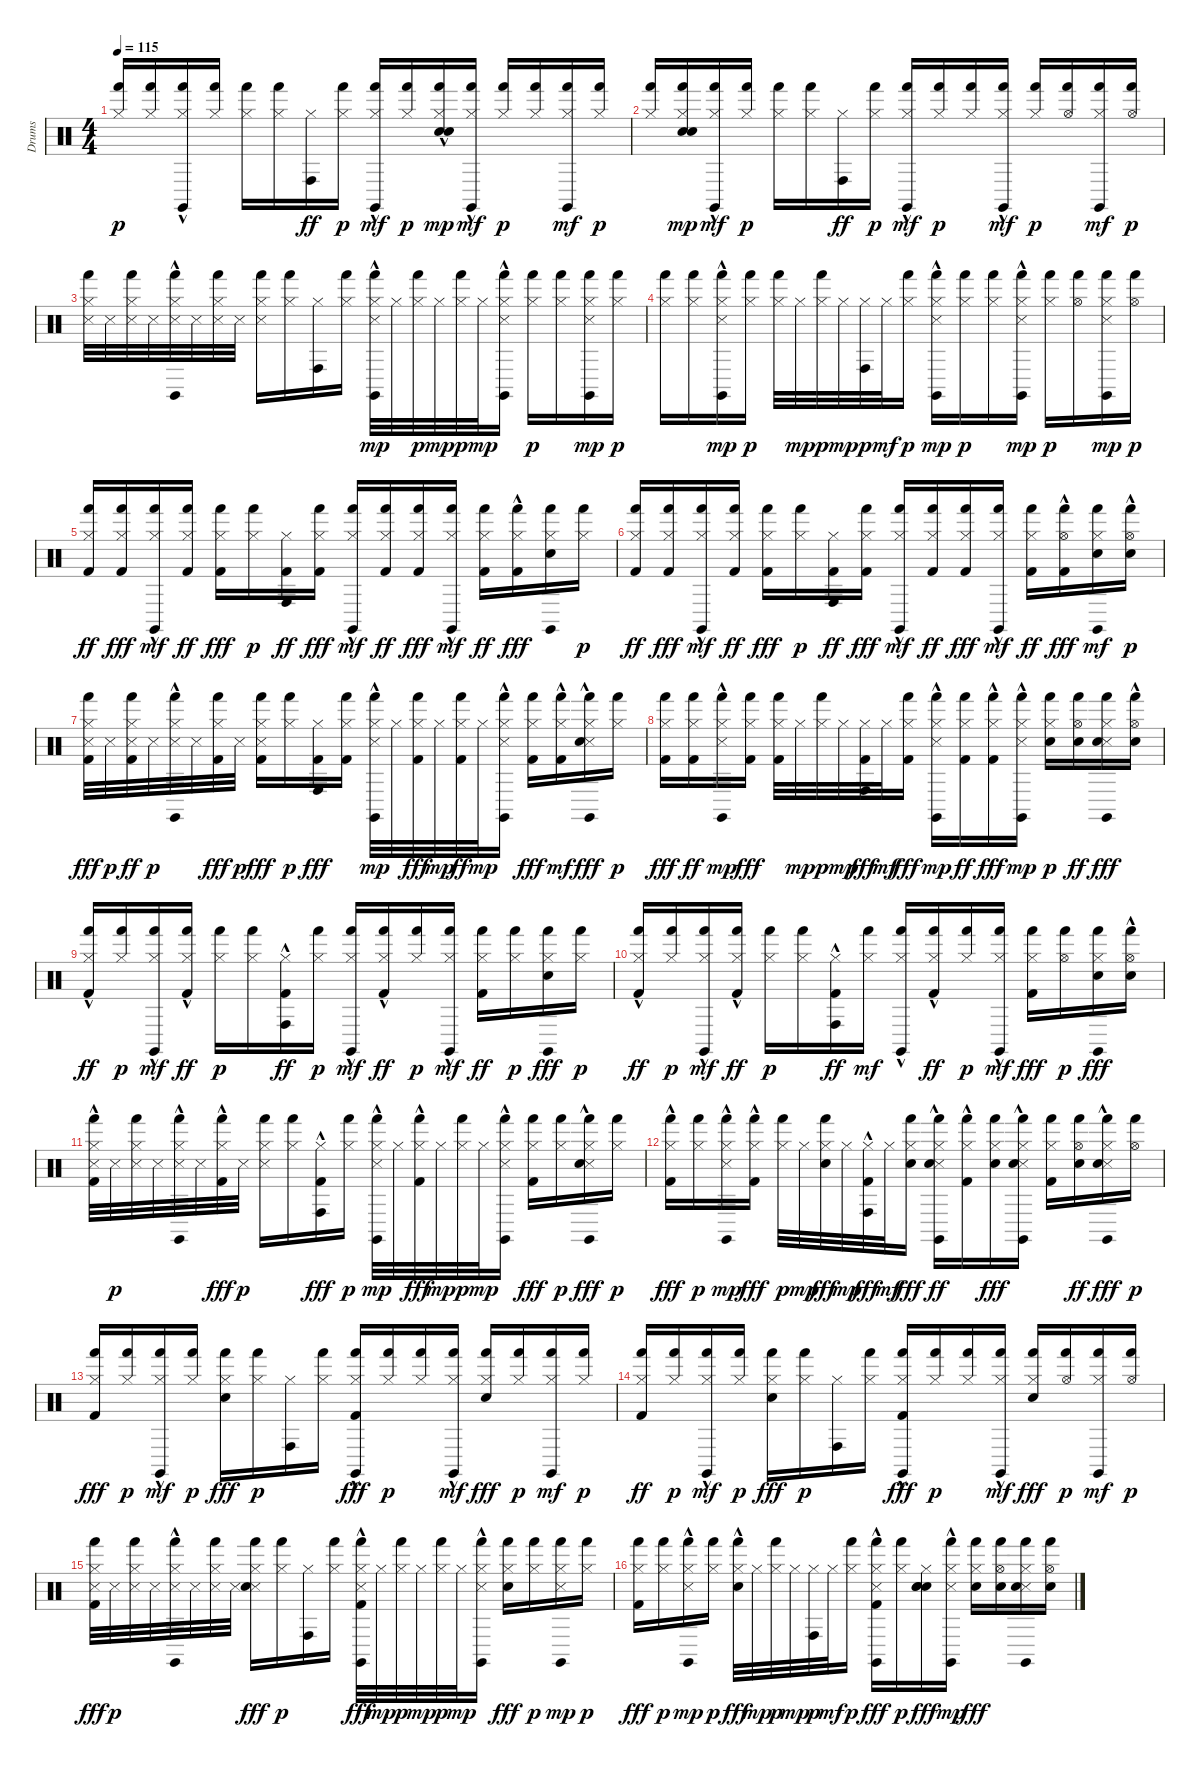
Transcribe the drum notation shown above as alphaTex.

\track ("Drums" "Drums") {instrument percussion}
\staff {score}
\articulation defaults
\ts (4 4)
\tempo 115
\clef neutral
\ks c
("Hi-Hat (closed)" "Hand (hit)").16{dy p} ("Hi-Hat (closed)" "Hand (hit)").16 ("Claves (hit)"{hac} "Hi-Hat (closed)" "Hand (hit)").16 ("Hi-Hat (closed)" "Hand (hit)").16 ("Hi-Hat (closed)" "Hand (hit)").16 ("Hand (hit)" "Hi-Hat (closed)").16 ("Conga high (hit)" "Hi-Hat (closed)").16{dy ff} ("Hi-Hat (closed)" "Hand (hit)").16{dy p} ("Hi-Hat (closed)" "Hand (hit)" "Claves (hit)"{hac}).16{dy mf} ("Hi-Hat (closed)" "Hand (hit)").16{dy p} ("Hand (hit)" "Hi-Hat (closed)" "Snare (hit)"{hac} "Snare (hit)"{hac}).16{dy mp} ("Hi-Hat (closed)" "Hand (hit)" "Claves (hit)"{hac}).16{dy mf} ("Hi-Hat (closed)" "Hand (hit)").16{dy p} ("Hi-Hat (closed)" "Hand (hit)").16 ("Hi-Hat (closed)" "Hand (hit)" "Claves (hit)").16{dy mf} ("Hi-Hat (closed)" "Hand (hit)").16{dy p} |
("Hi-Hat (closed)" "Hand (hit)").16 ("Hand (hit)" "Hi-Hat (closed)" "Snare (hit)" "Snare (hit)").16{dy mp} ("Hi-Hat (closed)" "Hand (hit)" "Claves (hit)"{hac}).16{dy mf} ("Hi-Hat (closed)" "Hand (hit)").16{dy p} ("Hi-Hat (closed)" "Hand (hit)").16 ("Hi-Hat (closed)" "Hand (hit)").16 ("Conga high (hit)" "Hi-Hat (closed)").16{dy ff} ("Hi-Hat (closed)" "Hand (hit)").16{dy p} ("Hi-Hat (closed)" "Hand (hit)" "Claves (hit)"{hac}).16{dy mf} ("Hi-Hat (closed)" "Hand (hit)").16{dy p} ("Hi-Hat (closed)" "Hand (hit)").16 ("Hi-Hat (closed)" "Hand (hit)" "Claves (hit)"{hac}).16{dy mf} ("Hi-Hat (closed)" "Hand (hit)").16{dy p} ("Hi-Hat (open)" "Hand (hit)").16 ("Hi-Hat (closed)" "Hand (hit)" "Claves (hit)").16{dy mf} ("Hi-Hat (open)" "Hand (hit)").16{dy p} |
("Hi-Hat (closed)" "Hand (hit)" "Snare (side stick) 3").32 "Snare (side stick) 3".32 ("Hi-Hat (closed)" "Hand (hit)" "Snare (side stick) 3").32 "Snare (side stick) 3".32 ("Hi-Hat (closed)" "Hand (hit)" "Claves (hit)"{hac} "Snare (side stick) 3").32 "Snare (side stick) 3".32 ("Hi-Hat (closed)" "Hand (hit)" "Snare (side stick) 3").32 "Snare (side stick) 3".32 ("Hi-Hat (closed)" "Hand (hit)" "Snare (side stick) 3").16 ("Hi-Hat (closed)" "Hand (hit)").16 ("Hi-Hat (closed)" "Conga high (hit)").16 ("Hi-Hat (closed)" "Hand (hit)").16 ("Hi-Hat (closed)" "Hand (hit)" "Claves (hit)"{hac} "Snare (side stick) 3"{hac}).32{dy mp} "Hi-Hat (closed)".32 ("Hi-Hat (closed)" "Hand (hit)").32{dy p} "Hi-Hat (closed)".32{dy mp} ("Hi-Hat (closed)" "Hand (hit)").32{dy p} "Hi-Hat (closed)".32{dy mp} ("Hi-Hat (closed)" "Hand (hit)" "Claves (hit)"{hac} "Snare (side stick) 3"{hac}).16 ("Hi-Hat (closed)" "Hand (hit)").16{dy p} ("Hi-Hat (closed)" "Hand (hit)").16 ("Hi-Hat (closed)" "Hand (hit)" "Claves (hit)" "Snare (side stick) 3").16{dy mp} ("Hi-Hat (closed)" "Hand (hit)").16{dy p} |
("Hi-Hat (closed)" "Hand (hit)").16 ("Hi-Hat (closed)" "Hand (hit)").16 ("Hi-Hat (closed)" "Hand (hit)" "Claves (hit)"{hac} "Snare (side stick) 3"{hac}).16{dy mp} ("Hi-Hat (closed)" "Hand (hit)").16{dy p} ("Hi-Hat (closed)" "Hand (hit)").32 "Hi-Hat (closed)".32{dy mp} ("Hi-Hat (closed)" "Hand (hit)").32{dy p} "Hi-Hat (closed)".32{dy mp} ("Hi-Hat (closed)" "Conga high (hit)").32{dy p} "Hi-Hat (closed)".32{dy mf} ("Hi-Hat (closed)" "Hand (hit)").16{dy p} ("Hi-Hat (closed)" "Hand (hit)" "Claves (hit)"{hac} "Snare (side stick) 3"{hac}).16{dy mp} ("Hi-Hat (closed)" "Hand (hit)").16{dy p} ("Hi-Hat (closed)" "Hand (hit)").16 ("Hi-Hat (closed)" "Hand (hit)" "Claves (hit)"{hac} "Snare (side stick) 3"{hac}).16{dy mp} ("Hi-Hat (closed)" "Hand (hit)").16{dy p} ("Hi-Hat (open)" "Hand (hit)").16 ("Hi-Hat (closed)" "Hand (hit)" "Claves (hit)" "Snare (side stick) 3").16{dy mp} ("Hi-Hat (open)" "Hand (hit)").16{dy p} |
("Hi-Hat (closed)" "Hand (hit)" "Kick (hit) 2").16{dy ff} ("Hi-Hat (closed)" "Hand (hit)" "Kick (hit) 2").16{dy fff} ("Hi-Hat (closed)" "Hand (hit)" "Claves (hit)"{hac}).16{dy mf} ("Hi-Hat (closed)" "Hand (hit)" "Kick (hit) 2").16{dy ff} ("Hi-Hat (closed)" "Hand (hit)" "Kick (hit) 2").16{dy fff} ("Hi-Hat (closed)" "Hand (hit)").16{dy p} ("Hi-Hat (closed)" "Conga high (hit)" "Kick (hit) 2").16{dy ff} ("Hi-Hat (closed)" "Hand (hit)" "Kick (hit) 2").16{dy fff} ("Hi-Hat (closed)" "Hand (hit)" "Claves (hit)"{hac}).16{dy mf} ("Hi-Hat (closed)" "Hand (hit)" "Kick (hit) 2").16{dy ff} ("Hi-Hat (closed)" "Hand (hit)" "Kick (hit) 2").16{dy fff} ("Hi-Hat (closed)" "Hand (hit)" "Claves (hit)"{hac}).16{dy mf} ("Hi-Hat (closed)" "Hand (hit)" "Kick (hit) 2").16{dy ff} ("Hi-Hat (closed)" "Hand (hit)" "Kick (hit) 2"{hac}).16{dy fff} ("Hi-Hat (closed)" "Hand (hit)" "Claves (hit)" "Snare (hit) 2").16 ("Hi-Hat (closed)" "Hand (hit)").16{dy p} |
("Hi-Hat (closed)" "Hand (hit)" "Kick (hit) 2").16{dy ff} ("Hi-Hat (closed)" "Hand (hit)" "Kick (hit) 2").16{dy fff} ("Hi-Hat (closed)" "Hand (hit)" "Claves (hit)"{hac}).16{dy mf} ("Hi-Hat (closed)" "Hand (hit)" "Kick (hit) 2").16{dy ff} ("Hi-Hat (closed)" "Hand (hit)" "Kick (hit) 2").16{dy fff} ("Hi-Hat (closed)" "Hand (hit)").16{dy p} ("Hi-Hat (closed)" "Conga high (hit)" "Kick (hit) 2").16{dy ff} ("Hand (hit)" "Hi-Hat (closed)" "Kick (hit) 2").16{dy fff} ("Hi-Hat (closed)" "Hand (hit)" "Claves (hit)"{hac}).16{dy mf} ("Hi-Hat (closed)" "Hand (hit)" "Kick (hit) 2").16{dy ff} ("Hi-Hat (closed)" "Hand (hit)" "Kick (hit) 2").16{dy fff} ("Hi-Hat (closed)" "Hand (hit)" "Claves (hit)"{hac}).16{dy mf} ("Hi-Hat (closed)" "Hand (hit)" "Kick (hit) 2").16{dy ff} ("Hi-Hat (open)" "Hand (hit)" "Kick (hit) 2"{hac}).16{dy fff} ("Snare (hit) 2" "Hi-Hat (closed)" "Hand (hit)" "Claves (hit)").16{dy mf} ("Snare (hit) 2"{hac} "Hi-Hat (open)" "Hand (hit)").16{dy p} |
("Hi-Hat (closed)" "Hand (hit)" "Snare (side stick) 3" "Kick (hit) 2").32{dy fff} "Snare (side stick) 3".32{dy p} ("Hi-Hat (closed)" "Hand (hit)" "Snare (side stick) 3" "Kick (hit) 2").32{dy ff} "Snare (side stick) 3".32{dy p} ("Hi-Hat (closed)" "Hand (hit)" "Claves (hit)"{hac} "Snare (side stick) 3").32 "Snare (side stick) 3".32 ("Hi-Hat (closed)" "Hand (hit)" "Kick (hit) 2").32{dy fff} "Snare (side stick) 3".32{dy p} ("Hi-Hat (closed)" "Hand (hit)" "Snare (side stick) 3" "Kick (hit) 2").16{dy fff} ("Hi-Hat (closed)" "Hand (hit)").16{dy p} ("Hi-Hat (closed)" "Conga high (hit)" "Kick (hit) 2").16{dy fff} ("Hi-Hat (closed)" "Hand (hit)" "Kick (hit) 2").16 ("Hi-Hat (closed)" "Hand (hit)" "Claves (hit)"{hac} "Snare (side stick) 3"{hac}).32{dy mp} "Hi-Hat (closed)".32 ("Hi-Hat (closed)" "Hand (hit)" "Kick (hit) 2").32{dy fff} "Hi-Hat (closed)".32{dy mp} ("Hi-Hat (closed)" "Hand (hit)" "Kick (hit) 2").32{dy ff} "Hi-Hat (closed)".32{dy mp} ("Hi-Hat (closed)" "Hand (hit)" "Claves (hit)"{hac} "Snare (side stick) 3"{hac}).16 ("Hi-Hat (closed)" "Hand (hit)" "Kick (hit) 2").16{dy fff} ("Hi-Hat (closed)" "Hand (hit)" "Kick (hit) 2"{hac}).16{dy mf} ("Hi-Hat (closed)" "Hand (hit)" "Claves (hit)" "Snare (side stick) 3" "Snare (hit) 2"{hac}).16{dy fff} ("Hi-Hat (closed)" "Hand (hit)").16{dy p} |
("Hi-Hat (closed)" "Hand (hit)" "Kick (hit) 2").16{dy fff} ("Hi-Hat (closed)" "Hand (hit)" "Kick (hit) 2").16{dy ff} ("Hi-Hat (closed)" "Hand (hit)" "Claves (hit)"{hac} "Snare (side stick) 3"{hac}).16{dy mp} ("Hi-Hat (closed)" "Hand (hit)" "Kick (hit) 2").16{dy fff} ("Hi-Hat (closed)" "Hand (hit)" "Kick (hit) 2").32 "Hi-Hat (closed)".32{dy mp} ("Hi-Hat (closed)" "Hand (hit)").32{dy p} "Hi-Hat (closed)".32{dy mp} ("Hi-Hat (closed)" "Conga high (hit)" "Kick (hit) 2").32{dy fff} "Hi-Hat (closed)".32{dy mf} ("Hi-Hat (closed)" "Hand (hit)" "Kick (hit) 2").16{dy fff} ("Hi-Hat (closed)" "Hand (hit)" "Claves (hit)"{hac} "Snare (side stick) 3"{hac}).16{dy mp} ("Hi-Hat (closed)" "Hand (hit)" "Kick (hit) 2").16{dy ff} ("Hi-Hat (closed)" "Hand (hit)" "Kick (hit) 2"{hac}).16{dy fff} ("Hi-Hat (closed)" "Hand (hit)" "Claves (hit)"{hac} "Snare (side stick) 3"{hac}).16{dy mp} ("Hi-Hat (closed)" "Hand (hit)" "Snare (hit) 2").16{dy p} ("Hi-Hat (open)" "Hand (hit)" "Snare (hit) 2").16{dy ff} ("Hi-Hat (closed)" "Hand (hit)" "Claves (hit)" "Snare (side stick) 3" "Snare (hit) 2").16{dy fff} ("Hi-Hat (open)" "Hand (hit)" "Snare (hit) 2"{hac}).16 |
("Hi-Hat (closed)" "Hand (hit)" "Kick (hit) 2"{hac}).16{dy ff} ("Hi-Hat (closed)" "Hand (hit)").16{dy p} ("Hi-Hat (closed)" "Hand (hit)" "Claves (hit)"{hac}).16{dy mf} ("Hi-Hat (closed)" "Hand (hit)" "Kick (hit) 2"{hac}).16{dy ff} ("Hi-Hat (closed)" "Hand (hit)").16{dy p} ("Hi-Hat (closed)" "Hand (hit)").16 ("Hi-Hat (closed)" "Conga high (hit)" "Kick (hit) 2"{hac}).16{dy ff} ("Hi-Hat (closed)" "Hand (hit)").16{dy p} ("Hi-Hat (closed)" "Hand (hit)" "Claves (hit)"{hac}).16{dy mf} ("Hi-Hat (closed)" "Hand (hit)" "Kick (hit) 2"{hac}).16{dy ff} ("Hi-Hat (closed)" "Hand (hit)").16{dy p} ("Hi-Hat (closed)" "Hand (hit)" "Claves (hit)"{hac}).16{dy mf} ("Hi-Hat (closed)" "Hand (hit)" "Kick (hit) 2").16{dy ff} ("Hi-Hat (closed)" "Hand (hit)").16{dy p} ("Hi-Hat (closed)" "Hand (hit)" "Claves (hit)" "Snare (hit) 2").16{dy fff} ("Hi-Hat (closed)" "Hand (hit)").16{dy p} |
("Hi-Hat (closed)" "Hand (hit)" "Kick (hit) 2"{hac}).16{dy ff} ("Hi-Hat (closed)" "Hand (hit)").16{dy p} ("Hi-Hat (closed)" "Hand (hit)" "Claves (hit)"{hac}).16{dy mf} ("Hi-Hat (closed)" "Hand (hit)" "Kick (hit) 2"{hac}).16{dy ff} ("Hi-Hat (closed)" "Hand (hit)").16{dy p} ("Hi-Hat (closed)" "Hand (hit)").16 ("Hi-Hat (closed)" "Conga high (hit)" "Kick (hit) 2"{hac}).16{dy ff} ("Hand (hit)" "Hi-Hat (closed)").16{dy mf} ("Hi-Hat (closed)" "Hand (hit)" "Claves (hit)"{hac}).16 ("Hi-Hat (closed)" "Hand (hit)" "Kick (hit) 2"{hac}).16{dy ff} ("Hi-Hat (closed)" "Hand (hit)").16{dy p} ("Hi-Hat (closed)" "Hand (hit)" "Claves (hit)"{hac}).16{dy mf} ("Hi-Hat (closed)" "Hand (hit)" "Kick (hit) 2").16{dy fff} ("Hi-Hat (open)" "Hand (hit)").16{dy p} ("Hi-Hat (closed)" "Hand (hit)" "Claves (hit)" "Snare (hit) 2").16{dy fff} ("Hi-Hat (open)" "Hand (hit)" "Snare (hit) 2"{hac}).16 |
("Hi-Hat (closed)" "Hand (hit)" "Snare (side stick) 3" "Kick (hit) 2"{hac}).32 "Snare (side stick) 3".32{dy p} ("Hi-Hat (closed)" "Hand (hit)" "Snare (side stick) 3").32 "Snare (side stick) 3".32 ("Hi-Hat (closed)" "Hand (hit)" "Claves (hit)"{hac} "Snare (side stick) 3").32 "Snare (side stick) 3".32 ("Hi-Hat (closed)" "Hand (hit)" "Kick (hit) 2"{hac}).32{dy fff} "Snare (side stick) 3".32{dy p} ("Hi-Hat (closed)" "Hand (hit)" "Snare (side stick) 3").16 ("Hi-Hat (closed)" "Hand (hit)").16 ("Hi-Hat (closed)" "Conga high (hit)" "Kick (hit) 2"{hac}).16{dy fff} ("Hi-Hat (closed)" "Hand (hit)").16{dy p} ("Hi-Hat (closed)" "Hand (hit)" "Claves (hit)"{hac} "Snare (side stick) 3"{hac}).32{dy mp} "Hi-Hat (closed)".32 ("Hi-Hat (closed)" "Hand (hit)" "Kick (hit) 2"{hac}).32{dy fff} "Hi-Hat (closed)".32{dy mp} ("Hi-Hat (closed)" "Hand (hit)").32{dy p} "Hi-Hat (closed)".32{dy mp} ("Hi-Hat (closed)" "Hand (hit)" "Claves (hit)"{hac} "Snare (side stick) 3"{hac}).16 ("Hi-Hat (closed)" "Hand (hit)" "Kick (hit) 2").16{dy fff} ("Hi-Hat (closed)" "Hand (hit)").16{dy p} ("Hi-Hat (closed)" "Hand (hit)" "Claves (hit)" "Snare (side stick) 3" "Snare (hit) 2"{hac}).16{dy fff} ("Hi-Hat (closed)" "Hand (hit)").16{dy p} |
("Hi-Hat (closed)" "Hand (hit)" "Kick (hit) 2"{hac}).16{dy fff} ("Hi-Hat (closed)" "Hand (hit)").16{dy p} ("Hi-Hat (closed)" "Hand (hit)" "Claves (hit)"{hac} "Snare (side stick) 3"{hac}).16{dy mp} ("Hi-Hat (closed)" "Hand (hit)" "Kick (hit) 2"{hac}).16{dy fff} ("Hi-Hat (closed)" "Hand (hit)").32{dy p} "Hi-Hat (closed)".32{dy mp} ("Hi-Hat (closed)" "Hand (hit)" "Snare (hit) 2").32{dy fff} "Hi-Hat (closed)".32{dy mp} ("Hi-Hat (closed)" "Conga high (hit)" "Kick (hit) 2"{hac}).32{dy fff} "Hi-Hat (closed)".32{dy mf} ("Hi-Hat (closed)" "Hand (hit)" "Snare (hit) 2").16{dy fff} ("Hi-Hat (closed)" "Hand (hit)" "Claves (hit)"{hac} "Snare (side stick) 3"{hac} "Snare (hit) 2").16{dy ff} ("Hi-Hat (closed)" "Hand (hit)" "Kick (hit) 2"{hac}).16 ("Hi-Hat (closed)" "Hand (hit)" "Snare (hit) 2").16{dy fff} ("Hi-Hat (closed)" "Hand (hit)" "Claves (hit)"{hac} "Snare (side stick) 3"{hac} "Snare (hit) 2").16 ("Hi-Hat (closed)" "Hand (hit)" "Kick (hit) 2").16 ("Hi-Hat (open)" "Hand (hit)" "Snare (hit) 2").16{dy ff} ("Hi-Hat (closed)" "Hand (hit)" "Claves (hit)" "Snare (side stick) 3" "Snare (hit) 2"{hac}).16{dy fff} ("Hi-Hat (open)" "Hand (hit)").16{dy p} |
("Hi-Hat (closed)" "Hand (hit)" "Kick (hit) 2").16{dy fff} ("Hi-Hat (closed)" "Hand (hit)").16{dy p} ("Hi-Hat (closed)" "Hand (hit)" "Claves (hit)"{hac}).16{dy mf} ("Hi-Hat (closed)" "Hand (hit)").16{dy p} ("Hi-Hat (closed)" "Hand (hit)" "Snare (hit) 2").16{dy fff} ("Hi-Hat (closed)" "Hand (hit)").16{dy p} ("Hi-Hat (closed)" "Conga high (hit)").16 ("Hi-Hat (closed)" "Hand (hit)").16 ("Hi-Hat (closed)" "Hand (hit)" "Claves (hit)"{hac} "Kick (hit) 2").16{dy fff} ("Hi-Hat (closed)" "Hand (hit)").16{dy p} ("Hi-Hat (closed)" "Hand (hit)").16 ("Hi-Hat (closed)" "Hand (hit)" "Claves (hit)"{hac}).16{dy mf} ("Hi-Hat (closed)" "Hand (hit)" "Snare (hit) 2").16{dy fff} ("Hi-Hat (closed)" "Hand (hit)").16{dy p} ("Hi-Hat (closed)" "Hand (hit)" "Claves (hit)").16{dy mf} ("Hi-Hat (closed)" "Hand (hit)").16{dy p} |
("Hi-Hat (closed)" "Hand (hit)" "Kick (hit) 2").16{dy ff} ("Hi-Hat (closed)" "Hand (hit)").16{dy p} ("Hi-Hat (closed)" "Hand (hit)" "Claves (hit)"{hac}).16{dy mf} ("Hi-Hat (closed)" "Hand (hit)").16{dy p} ("Hi-Hat (closed)" "Hand (hit)" "Snare (hit) 2").16{dy fff} ("Hi-Hat (closed)" "Hand (hit)").16{dy p} ("Hi-Hat (closed)" "Conga high (hit)").16 ("Hi-Hat (closed)" "Hand (hit)").16 ("Hi-Hat (closed)" "Hand (hit)" "Claves (hit)"{hac} "Kick (hit) 2").16{dy fff} ("Hi-Hat (closed)" "Hand (hit)").16{dy p} ("Hi-Hat (closed)" "Hand (hit)").16 ("Hi-Hat (closed)" "Hand (hit)" "Claves (hit)"{hac}).16{dy mf} ("Hi-Hat (closed)" "Hand (hit)" "Snare (hit) 2").16{dy fff} ("Hi-Hat (open)" "Hand (hit)").16{dy p} ("Hi-Hat (closed)" "Hand (hit)" "Claves (hit)").16{dy mf} ("Hi-Hat (open)" "Hand (hit)").16{dy p} |
("Hi-Hat (closed)" "Hand (hit)" "Snare (side stick) 3" "Kick (hit) 2").32{dy fff} "Snare (side stick) 3".32{dy p} ("Hi-Hat (closed)" "Hand (hit)" "Snare (side stick) 3").32 "Snare (side stick) 3".32 ("Hi-Hat (closed)" "Hand (hit)" "Claves (hit)"{hac} "Snare (side stick) 3").32 "Snare (side stick) 3".32 ("Hi-Hat (closed)" "Hand (hit)" "Snare (side stick) 3").32 "Snare (side stick) 3".32 ("Hi-Hat (closed)" "Hand (hit)" "Snare (side stick) 3" "Snare (hit) 2").16{dy fff} ("Hi-Hat (closed)" "Hand (hit)").16{dy p} ("Hi-Hat (closed)" "Conga high (hit)").16 ("Hi-Hat (closed)" "Hand (hit)").16 ("Hi-Hat (closed)" "Hand (hit)" "Claves (hit)"{hac} "Snare (side stick) 3"{hac} "Kick (hit) 2").32{dy fff} "Hi-Hat (closed)".32{dy mp} ("Hi-Hat (closed)" "Hand (hit)").32{dy p} "Hi-Hat (closed)".32{dy mp} ("Hi-Hat (closed)" "Hand (hit)").32{dy p} "Hi-Hat (closed)".32{dy mp} ("Hi-Hat (closed)" "Hand (hit)" "Claves (hit)"{hac} "Snare (side stick) 3"{hac}).16 ("Hi-Hat (closed)" "Hand (hit)" "Snare (hit) 2").16{dy fff} ("Hi-Hat (closed)" "Hand (hit)").16{dy p} ("Hi-Hat (closed)" "Hand (hit)" "Claves (hit)" "Snare (side stick) 3").16{dy mp} ("Hi-Hat (closed)" "Hand (hit)").16{dy p} |
("Hi-Hat (closed)" "Hand (hit)" "Kick (hit) 2").16{dy fff} ("Hi-Hat (closed)" "Hand (hit)").16{dy p} ("Hi-Hat (closed)" "Hand (hit)" "Claves (hit)"{hac} "Snare (side stick) 3"{hac}).16{dy mp} ("Hi-Hat (closed)" "Hand (hit)").16{dy p} ("Hi-Hat (closed)" "Hand (hit)" "Snare (hit) 2"{hac}).32{dy fff} "Hi-Hat (closed)".32{dy mp} ("Hi-Hat (closed)" "Hand (hit)").32{dy p} "Hi-Hat (closed)".32{dy mp} ("Hi-Hat (closed)" "Conga high (hit)").32{dy p} "Hi-Hat (closed)".32{dy mf} ("Hi-Hat (closed)" "Hand (hit)").16{dy p} ("Hi-Hat (closed)" "Hand (hit)" "Claves (hit)"{hac} "Snare (side stick) 3"{hac} "Kick (hit) 2").16{dy fff} ("Hi-Hat (closed)" "Hand (hit)").16{dy p} ("Hi-Hat (closed)" "Snare (hit)" "Snare (hit)" "Snare (hit) 2").16{dy fff} ("Hi-Hat (closed)" "Hand (hit)" "Claves (hit)"{hac} "Snare (side stick) 3"{hac}).16{dy mp} ("Hi-Hat (closed)" "Hand (hit)" "Snare (hit) 2").16{dy fff} ("Hi-Hat (open)" "Hand (hit)" "Snare (hit) 2").16 ("Hi-Hat (closed)" "Hand (hit)" "Claves (hit)" "Snare (side stick) 3" "Snare (hit) 2").16 ("Hi-Hat (open)" "Hand (hit)" "Snare (hit) 2").16
